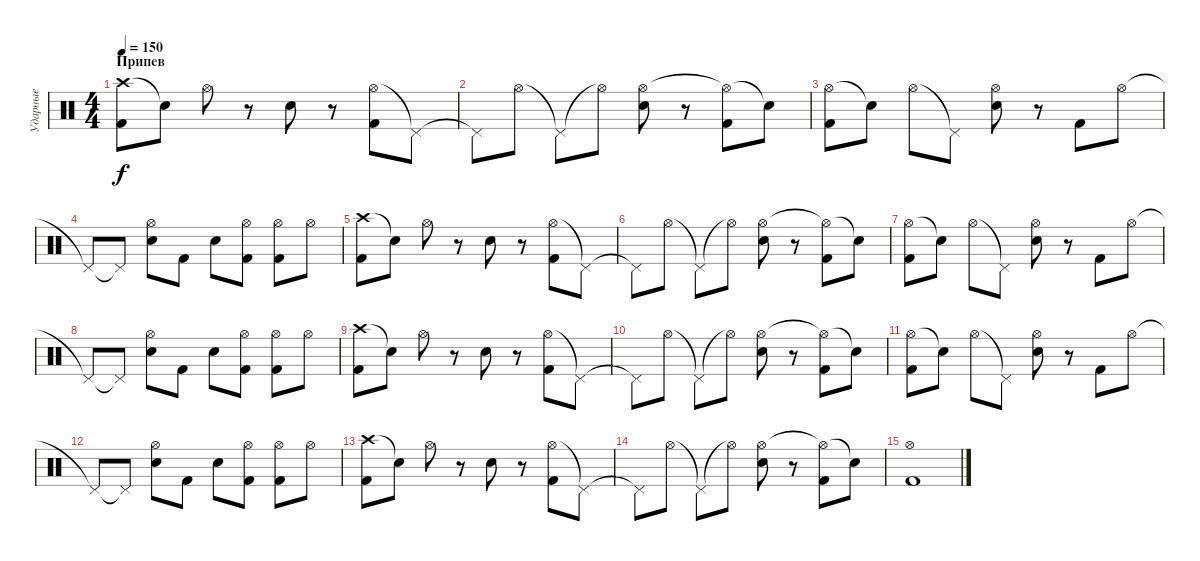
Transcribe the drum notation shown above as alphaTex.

\track ("Ударные" "Ударные") {instrument percussion}
\staff {score}
\articulation defaults
\ts (4 4)
\section ("" "Припев")
\tempo 150
\clef neutral
\ks c
("Crash high (hit)" "Kick (hit) 2").8{dy f} "Snare (hit)"{t}.8 "Hi-Hat (open)".8 r.8 "Electric Snare (hit)".8 r.8 ("Hi-Hat (open)" "Kick (hit) 2").8 "Pedal Hi-Hat (hit)"{t}.8 |
"Pedal Hi-Hat (hit)"{t}.8 "Hi-Hat (open)".8 "Pedal Hi-Hat (hit)"{t}.8 "Hi-Hat (open)"{t}.8 ("Hi-Hat (open)" "Electric Snare (hit)").8 r.8 ("Hi-Hat (open)"{t} "Kick (hit) 2").8 "Snare (hit)"{t}.8 |
("Hi-Hat (open)" "Kick (hit) 2").8 "Snare (hit)"{t}.8 "Hi-Hat (open)".8 "Pedal Hi-Hat (hit)"{t}.8 ("Hi-Hat (open)" "Electric Snare (hit)").8 r.8 "Kick (hit) 2".8 "Hi-Hat (open)".8 |
"Pedal Hi-Hat (hit)"{t}.8 "Pedal Hi-Hat (hit)"{t}.8 ("Hi-Hat (open)" "Electric Snare (hit)").8 "Kick (hit) 2".8 "Electric Snare (hit)".8 ("Hi-Hat (open)" "Kick (hit) 2").8 ("Hi-Hat (open)" "Kick (hit) 2").8 "Hi-Hat (open)".8 |
("Crash high (hit)" "Kick (hit) 2").8 "Snare (hit)"{t}.8 "Hi-Hat (open)".8 r.8 "Electric Snare (hit)".8 r.8 ("Hi-Hat (open)" "Kick (hit) 2").8 "Pedal Hi-Hat (hit)"{t}.8 |
"Pedal Hi-Hat (hit)"{t}.8 "Hi-Hat (open)".8 "Pedal Hi-Hat (hit)"{t}.8 "Hi-Hat (open)"{t}.8 ("Hi-Hat (open)" "Electric Snare (hit)").8 r.8 ("Hi-Hat (open)"{t} "Kick (hit) 2").8 "Snare (hit)"{t}.8 |
("Hi-Hat (open)" "Kick (hit) 2").8 "Snare (hit)"{t}.8 "Hi-Hat (open)".8 "Pedal Hi-Hat (hit)"{t}.8 ("Hi-Hat (open)" "Electric Snare (hit)").8 r.8 "Kick (hit) 2".8 "Hi-Hat (open)".8 |
"Pedal Hi-Hat (hit)"{t}.8 "Pedal Hi-Hat (hit)"{t}.8 ("Hi-Hat (open)" "Electric Snare (hit)").8 "Kick (hit) 2".8 "Electric Snare (hit)".8 ("Hi-Hat (open)" "Kick (hit) 2").8 ("Hi-Hat (open)" "Kick (hit) 2").8 "Hi-Hat (open)".8 |
("Crash high (hit)" "Kick (hit) 2").8 "Snare (hit)"{t}.8 "Hi-Hat (open)".8 r.8 "Electric Snare (hit)".8 r.8 ("Hi-Hat (open)" "Kick (hit) 2").8 "Pedal Hi-Hat (hit)"{t}.8 |
"Pedal Hi-Hat (hit)"{t}.8 "Hi-Hat (open)".8 "Pedal Hi-Hat (hit)"{t}.8 "Hi-Hat (open)"{t}.8 ("Hi-Hat (open)" "Electric Snare (hit)").8 r.8 ("Hi-Hat (open)"{t} "Kick (hit) 2").8 "Snare (hit)"{t}.8 |
("Hi-Hat (open)" "Kick (hit) 2").8 "Snare (hit)"{t}.8 "Hi-Hat (open)".8 "Pedal Hi-Hat (hit)"{t}.8 ("Hi-Hat (open)" "Electric Snare (hit)").8 r.8 "Kick (hit) 2".8 "Hi-Hat (open)".8 |
"Pedal Hi-Hat (hit)"{t}.8 "Pedal Hi-Hat (hit)"{t}.8 ("Hi-Hat (open)" "Electric Snare (hit)").8 "Kick (hit) 2".8 "Electric Snare (hit)".8 ("Hi-Hat (open)" "Kick (hit) 2").8 ("Hi-Hat (open)" "Kick (hit) 2").8 "Hi-Hat (open)".8 |
("Crash high (hit)" "Kick (hit) 2").8 "Snare (hit)"{t}.8 "Hi-Hat (open)".8 r.8 "Electric Snare (hit)".8 r.8 ("Hi-Hat (open)" "Kick (hit) 2").8 "Pedal Hi-Hat (hit)"{t}.8 |
"Pedal Hi-Hat (hit)"{t}.8 "Hi-Hat (open)".8 "Pedal Hi-Hat (hit)"{t}.8 "Hi-Hat (open)"{t}.8 ("Hi-Hat (open)" "Electric Snare (hit)").8 r.8 ("Hi-Hat (open)"{t} "Kick (hit) 2").8 "Snare (hit)"{t}.8 |
("Hi-Hat (open)" "Kick (hit) 2").1
